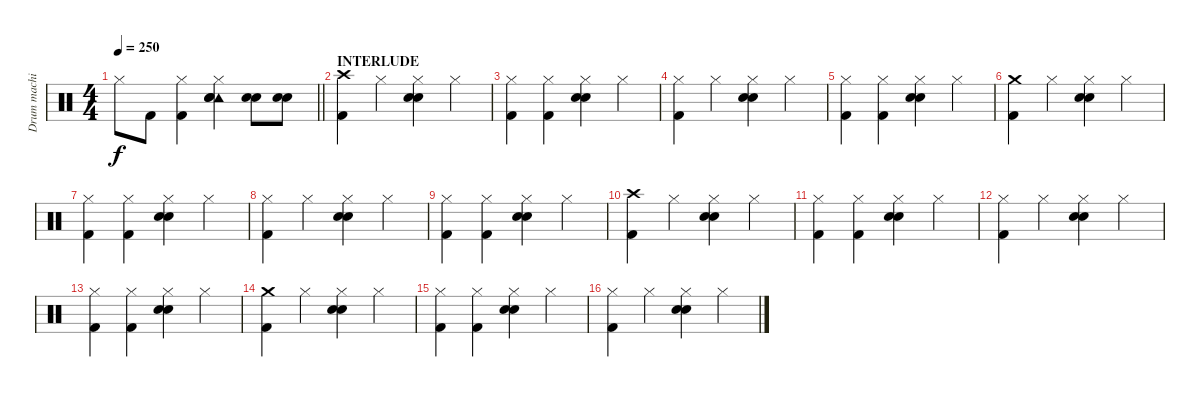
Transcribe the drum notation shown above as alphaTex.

\track ("Drum machine" "Drum machi") {instrument percussion}
\staff {score}
\articulation defaults
\ts (4 4)
\tempo 250
\clef neutral
\barLineRight lightlight
\ks c "Hi-Hat (closed)".8{dy f} "Kick (hit) 2".8
("Hi-Hat (closed)" "Kick (hit) 2").4 ("Tambourine (hit)" "Hi-Hat (closed)" "Electric Snare (hit)" "Snare (hit) 2").4 ("Electric Snare (hit)" "Snare (hit) 2").8 ("Electric Snare (hit)" "Snare (hit) 2").8 |
\section ("" "INTERLUDE")
("Crash high (hit)" "Kick (hit) 2").4 "Hi-Hat (closed)".4 ("Hi-Hat (closed)" "Electric Snare (hit)" "Snare (hit) 2").4 "Hi-Hat (closed)".4 |
("Hi-Hat (closed)" "Kick (hit) 2").4 ("Hi-Hat (closed)" "Kick (hit) 2").4 ("Hi-Hat (closed)" "Electric Snare (hit)" "Snare (hit) 2").4 "Hi-Hat (closed)".4 |
("Hi-Hat (closed)" "Kick (hit) 2").4 "Hi-Hat (closed)".4 ("Hi-Hat (closed)" "Electric Snare (hit)" "Snare (hit) 2").4 "Hi-Hat (closed)".4 |
("Hi-Hat (closed)" "Kick (hit) 2").4 ("Hi-Hat (closed)" "Kick (hit) 2").4 ("Hi-Hat (closed)" "Electric Snare (hit)" "Snare (hit) 2").4 "Hi-Hat (closed)".4 |
("Crash medium (hit)" "Kick (hit) 2").4 "Hi-Hat (closed)".4 ("Hi-Hat (closed)" "Electric Snare (hit)" "Snare (hit) 2").4 "Hi-Hat (closed)".4 |
("Hi-Hat (closed)" "Kick (hit) 2").4 ("Hi-Hat (closed)" "Kick (hit) 2").4 ("Hi-Hat (closed)" "Electric Snare (hit)" "Snare (hit) 2").4 "Hi-Hat (closed)".4 |
("Hi-Hat (closed)" "Kick (hit) 2").4 "Hi-Hat (closed)".4 ("Hi-Hat (closed)" "Electric Snare (hit)" "Snare (hit) 2").4 "Hi-Hat (closed)".4 |
("Hi-Hat (closed)" "Kick (hit) 2").4 ("Hi-Hat (closed)" "Kick (hit) 2").4 ("Hi-Hat (closed)" "Electric Snare (hit)" "Snare (hit) 2").4 "Hi-Hat (closed)".4 |
("Crash high (hit)" "Kick (hit) 2").4 "Hi-Hat (closed)".4 ("Hi-Hat (closed)" "Electric Snare (hit)" "Snare (hit) 2").4 "Hi-Hat (closed)".4 |
("Hi-Hat (closed)" "Kick (hit) 2").4 ("Hi-Hat (closed)" "Kick (hit) 2").4 ("Hi-Hat (closed)" "Electric Snare (hit)" "Snare (hit) 2").4 "Hi-Hat (closed)".4 |
("Hi-Hat (closed)" "Kick (hit) 2").4 "Hi-Hat (closed)".4 ("Hi-Hat (closed)" "Electric Snare (hit)" "Snare (hit) 2").4 "Hi-Hat (closed)".4 |
("Hi-Hat (closed)" "Kick (hit) 2").4 ("Hi-Hat (closed)" "Kick (hit) 2").4 ("Hi-Hat (closed)" "Electric Snare (hit)" "Snare (hit) 2").4 "Hi-Hat (closed)".4 |
("Crash medium (hit)" "Kick (hit) 2").4 "Hi-Hat (closed)".4 ("Hi-Hat (closed)" "Electric Snare (hit)" "Snare (hit) 2").4 "Hi-Hat (closed)".4 |
("Hi-Hat (closed)" "Kick (hit) 2").4 ("Hi-Hat (closed)" "Kick (hit) 2").4 ("Hi-Hat (closed)" "Electric Snare (hit)" "Snare (hit) 2").4 "Hi-Hat (closed)".4 |
("Hi-Hat (closed)" "Kick (hit) 2").4 "Hi-Hat (closed)".4 ("Hi-Hat (closed)" "Electric Snare (hit)" "Snare (hit) 2").4 "Hi-Hat (closed)".4
